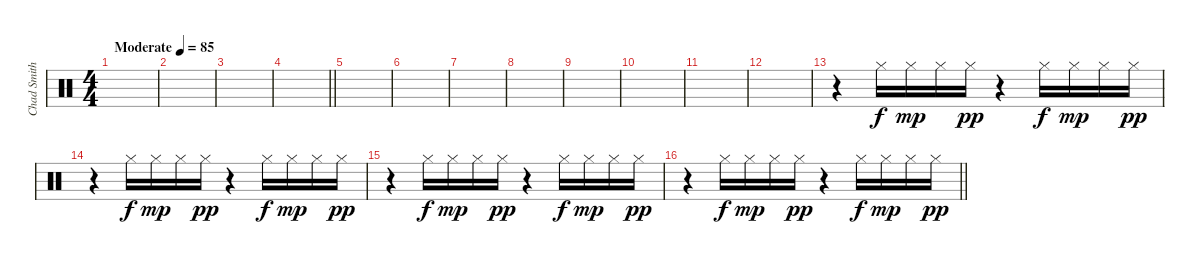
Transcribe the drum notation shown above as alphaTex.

\track ("Chad Smith" "Chad Smith") {instrument percussion}
\staff {score}
\articulation defaults
\ts (4 4)
\tempo (85 "Moderate")
\clef neutral
\ks c
|
|
|
\barLineRight lightlight
|
|
|
|
|
|
|
|
|
r.4 "Hi-Hat (closed)".16 "Hi-Hat (closed)".16{dy mp} "Hi-Hat (closed)".16 "Hi-Hat (closed)".16{dy pp} r.4 "Hi-Hat (closed)".16{dy f} "Hi-Hat (closed)".16{dy mp} "Hi-Hat (closed)".16 "Hi-Hat (closed)".16{dy pp} |
r.4 "Hi-Hat (closed)".16{dy f} "Hi-Hat (closed)".16{dy mp} "Hi-Hat (closed)".16 "Hi-Hat (closed)".16{dy pp} r.4 "Hi-Hat (closed)".16{dy f} "Hi-Hat (closed)".16{dy mp} "Hi-Hat (closed)".16 "Hi-Hat (closed)".16{dy pp} |
r.4 "Hi-Hat (closed)".16{dy f} "Hi-Hat (closed)".16{dy mp} "Hi-Hat (closed)".16 "Hi-Hat (closed)".16{dy pp} r.4 "Hi-Hat (closed)".16{dy f} "Hi-Hat (closed)".16{dy mp} "Hi-Hat (closed)".16 "Hi-Hat (closed)".16{dy pp} |
\barLineRight lightlight
r.4 "Hi-Hat (closed)".16{dy f} "Hi-Hat (closed)".16{dy mp} "Hi-Hat (closed)".16 "Hi-Hat (closed)".16{dy pp} r.4 "Hi-Hat (closed)".16{dy f} "Hi-Hat (closed)".16{dy mp} "Hi-Hat (closed)".16 "Hi-Hat (closed)".16{dy pp}
